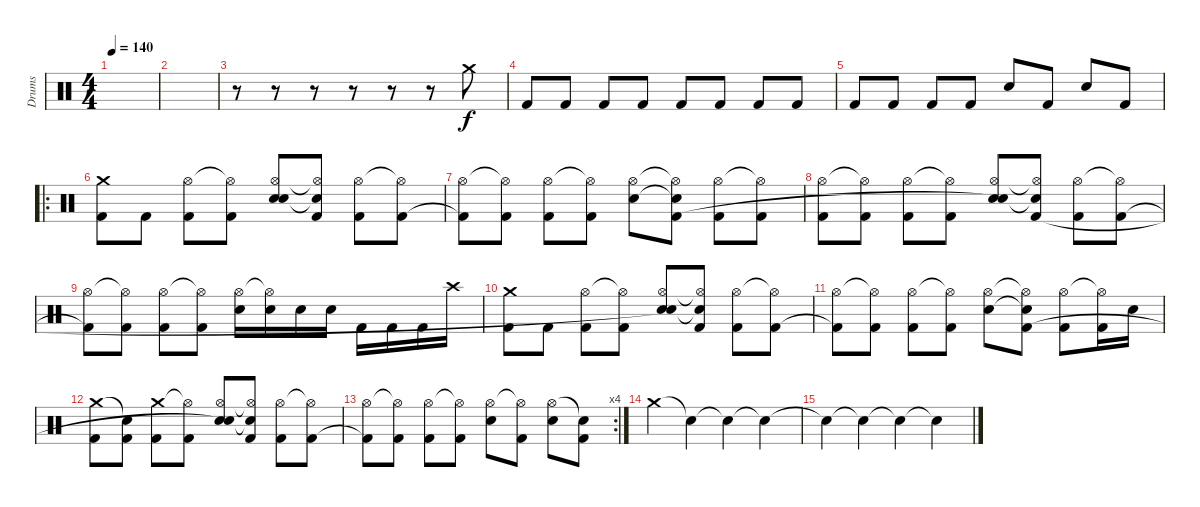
\track ("Drums" "Drums") {instrument percussion}
\staff {score}
\articulation defaults
\ts (4 4)
\tempo 140
\clef neutral
\ks c
|
|
r.8 r.8 r.8 r.8 r.8 r.8 "Crash medium (hit)".8 |
"Kick (hit) 2".8 "Kick (hit) 2".8 "Kick (hit) 2".8 "Kick (hit) 2".8 "Kick (hit) 2".8 "Kick (hit) 2".8 "Kick (hit) 2".8 "Kick (hit) 2".8 |
"Kick (hit) 2".8 "Kick (hit) 2".8 "Kick (hit) 2".8 "Kick (hit) 2".8 "Electric Snare (hit)".8 "Kick (hit) 2".8 "Electric Snare (hit)".8 "Kick (hit) 2".8 |
\ro
("Crash medium (hit)" "Kick (hit) 2").8 "Kick (hit) 2".8 ("Hi-Hat (open)" "Kick (hit) 2").8 ("Hi-Hat (open)"{t} "Kick (hit) 2").8 ("Hi-Hat (open)" "Electric Snare (hit)" "Snare (hit)").8 ("Hi-Hat (open)"{t} "Snare (hit) 2"{t} "Kick (hit) 2").8 ("Hi-Hat (open)" "Kick (hit) 2").8 ("Hi-Hat (open)"{t} "Kick (hit) 2").8 |
("Hi-Hat (open)" "Kick (hit) 2"{t}).8 ("Hi-Hat (open)"{t} "Kick (hit) 2").8 ("Hi-Hat (open)" "Kick (hit) 2").8 ("Hi-Hat (open)"{t} "Kick (hit) 2").8 ("Hi-Hat (open)" "Electric Snare (hit)").8 ("Hi-Hat (open)"{t} "Snare (hit)"{t} "Kick (hit) 2").8 ("Hi-Hat (open)" "Kick (hit) 2").8 ("Hi-Hat (open)"{t} "Kick (hit) 2").8 |
("Hi-Hat (open)" "Kick (hit) 2").8 ("Hi-Hat (open)"{t} "Kick (hit) 2").8 ("Hi-Hat (open)" "Kick (hit) 2").8 ("Hi-Hat (open)"{t} "Kick (hit) 2").8 ("Hi-Hat (open)" "Electric Snare (hit)" "Snare (hit)"{t}).8 ("Hi-Hat (open)"{t} "Snare (hit) 2"{t} "Kick (hit) 2").8 ("Hi-Hat (open)" "Kick (hit) 2").8 ("Hi-Hat (open)"{t} "Kick (hit) 2").8 |
("Hi-Hat (open)" "Kick (hit) 2"{t}).8 ("Hi-Hat (open)"{t} "Kick (hit) 2").8 ("Hi-Hat (open)" "Kick (hit) 2").8 ("Hi-Hat (open)"{t} "Kick (hit) 2").8 ("Hi-Hat (open)" "Electric Snare (hit)").16 ("Hi-Hat (open)"{t} "Electric Snare (hit)").16 "Electric Snare (hit)".16 "Electric Snare (hit)".16 "Kick (hit) 2".16 "Kick (hit) 2".16 "Kick (hit) 2".16 "Crash high (hit)".16 |
("Crash medium (hit)" "Kick (hit) 2").8 "Kick (hit) 2".8 ("Hi-Hat (open)" "Kick (hit) 2").8 ("Hi-Hat (open)"{t} "Kick (hit) 2").8 ("Hi-Hat (open)" "Electric Snare (hit)" "Snare (hit)"{t}).8 ("Hi-Hat (open)"{t} "Snare (hit) 2"{t} "Kick (hit) 2").8 ("Hi-Hat (open)" "Kick (hit) 2").8 ("Hi-Hat (open)"{t} "Kick (hit) 2").8 |
("Hi-Hat (open)" "Kick (hit) 2"{t}).8 ("Hi-Hat (open)"{t} "Kick (hit) 2").8 ("Hi-Hat (open)" "Kick (hit) 2").8 ("Hi-Hat (open)"{t} "Kick (hit) 2").8 ("Hi-Hat (open)" "Electric Snare (hit)").8 ("Hi-Hat (open)"{t} "Snare (hit)"{t} "Kick (hit) 2").8 ("Hi-Hat (open)" "Kick (hit) 2").8 ("Hi-Hat (open)"{t} "Kick (hit) 2").16 "Electric Snare (hit)".16 |
("Crash medium (hit)" "Kick (hit) 2").8 ("Snare (hit)"{t} "Kick (hit) 2").8 ("Crash medium (hit)" "Kick (hit) 2").8 ("Hi-Hat (open)"{t} "Kick (hit) 2").8 ("Hi-Hat (open)" "Electric Snare (hit)" "Snare (hit)"{t}).8 ("Hi-Hat (open)"{t} "Snare (hit) 2"{t} "Kick (hit) 2").8 ("Hi-Hat (open)" "Kick (hit) 2").8 ("Hi-Hat (open)"{t} "Kick (hit) 2").8 |
\rc 4
("Hi-Hat (open)" "Kick (hit) 2"{t}).8 ("Hi-Hat (open)"{t} "Kick (hit) 2").8 ("Hi-Hat (open)" "Kick (hit) 2").8 ("Hi-Hat (open)"{t} "Kick (hit) 2").8 ("Hi-Hat (open)" "Electric Snare (hit)").8 ("Hi-Hat (open)"{t} "Kick (hit) 2").8 ("Hi-Hat (open)" "Electric Snare (hit)").8 ("Snare (hit)"{t} "Kick (hit) 2").8 |
"Crash medium (hit)".4 "Snare (hit)"{t}.4 "Snare (hit)"{t}.4 "Snare (hit)"{t}.4 |
"Snare (hit)"{t}.4 "Snare (hit)"{t}.4 "Snare (hit)"{t}.4 "Snare (hit)"{t}.4
